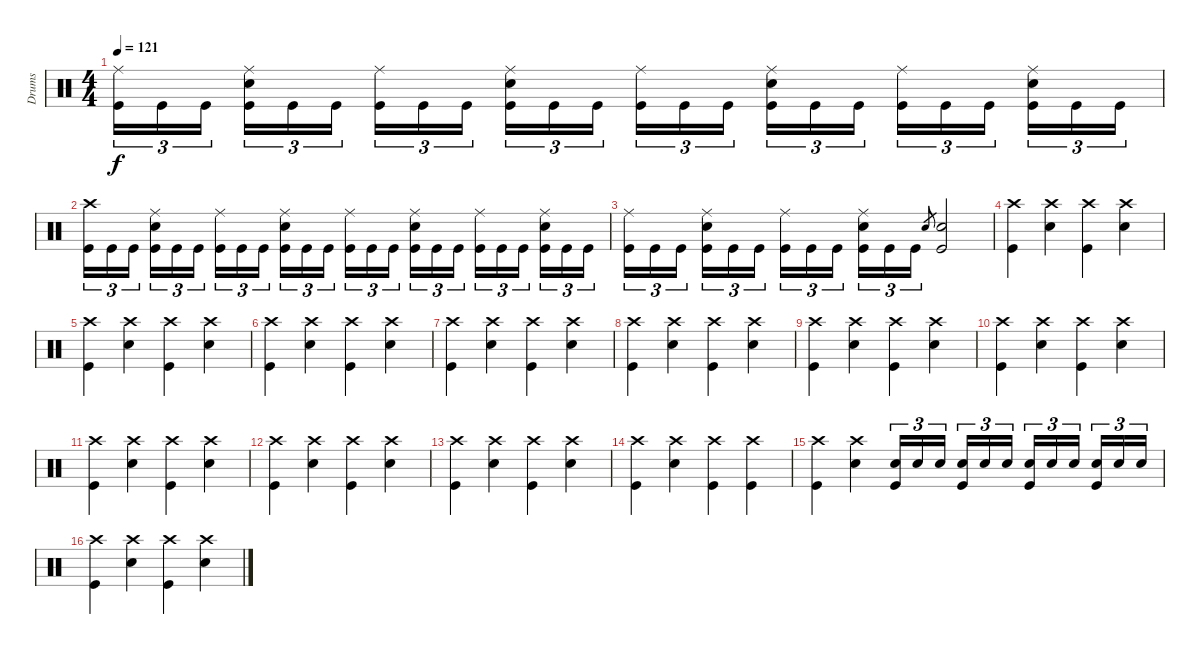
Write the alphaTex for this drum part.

\track ("Drums" "Drums") {instrument percussion}
\staff {score}
\articulation defaults
\ts (4 4)
\tempo 121
\clef neutral
\ks c
("Ride (middle)" "Kick (hit)").16{tu (3 2) dy f} "Kick (hit)".16{tu (3 2)} "Kick (hit)".16{tu (3 2)} ("Ride (middle)" "Electric Snare (hit)" "Kick (hit)").16{tu (3 2)} "Kick (hit)".16{tu (3 2)} "Kick (hit)".16{tu (3 2)} ("Ride (middle)" "Kick (hit)").16{tu (3 2)} "Kick (hit)".16{tu (3 2)} "Kick (hit)".16{tu (3 2)} ("Ride (middle)" "Electric Snare (hit)" "Kick (hit)").16{tu (3 2)} "Kick (hit)".16{tu (3 2)} "Kick (hit)".16{tu (3 2)} ("Ride (middle)" "Kick (hit)").16{tu (3 2)} "Kick (hit)".16{tu (3 2)} "Kick (hit)".16{tu (3 2)} ("Ride (middle)" "Electric Snare (hit)" "Kick (hit)").16{tu (3 2)} "Kick (hit)".16{tu (3 2)} "Kick (hit)".16{tu (3 2)} ("Ride (middle)" "Kick (hit)").16{tu (3 2)} "Kick (hit)".16{tu (3 2)} "Kick (hit)".16{tu (3 2)} ("Ride (middle)" "Electric Snare (hit)" "Kick (hit)").16{tu (3 2)} "Kick (hit)".16{tu (3 2)} "Kick (hit)".16{tu (3 2)} |
("Crash high (hit)" "Kick (hit)").16{tu (3 2)} "Kick (hit)".16{tu (3 2)} "Kick (hit)".16{tu (3 2)} ("Ride (middle)" "Electric Snare (hit)" "Kick (hit)").16{tu (3 2)} "Kick (hit)".16{tu (3 2)} "Kick (hit)".16{tu (3 2)} ("Ride (middle)" "Kick (hit)").16{tu (3 2)} "Kick (hit)".16{tu (3 2)} "Kick (hit)".16{tu (3 2)} ("Ride (middle)" "Electric Snare (hit)" "Kick (hit)").16{tu (3 2)} "Kick (hit)".16{tu (3 2)} "Kick (hit)".16{tu (3 2)} ("Ride (middle)" "Kick (hit)").16{tu (3 2)} "Kick (hit)".16{tu (3 2)} "Kick (hit)".16{tu (3 2)} ("Ride (middle)" "Electric Snare (hit)" "Kick (hit)").16{tu (3 2)} "Kick (hit)".16{tu (3 2)} "Kick (hit)".16{tu (3 2)} ("Ride (middle)" "Kick (hit)").16{tu (3 2)} "Kick (hit)".16{tu (3 2)} "Kick (hit)".16{tu (3 2)} ("Ride (middle)" "Electric Snare (hit)" "Kick (hit)").16{tu (3 2)} "Kick (hit)".16{tu (3 2)} "Kick (hit)".16{tu (3 2)} |
("Ride (middle)" "Kick (hit)").16{tu (3 2)} "Kick (hit)".16{tu (3 2)} "Kick (hit)".16{tu (3 2)} ("Ride (middle)" "Electric Snare (hit)" "Kick (hit)").16{tu (3 2)} "Kick (hit)".16{tu (3 2)} "Kick (hit)".16{tu (3 2)} ("Ride (middle)" "Kick (hit)").16{tu (3 2)} "Kick (hit)".16{tu (3 2)} "Kick (hit)".16{tu (3 2)} ("Ride (middle)" "Electric Snare (hit)" "Kick (hit)").16{tu (3 2)} "Kick (hit)".16{tu (3 2)} "Kick (hit)".16{tu (3 2)} "Electric Snare (hit)".8{gr} ("Electric Snare (hit)" "Kick (hit)").2 |
("Crash high (hit)" "Kick (hit)").4 ("Crash high (hit)" "Electric Snare (hit)").4 ("Crash high (hit)" "Kick (hit)").4 ("Crash high (hit)" "Electric Snare (hit)").4 |
("Crash high (hit)" "Kick (hit)").4 ("Crash high (hit)" "Electric Snare (hit)").4 ("Crash high (hit)" "Kick (hit)").4 ("Crash high (hit)" "Electric Snare (hit)").4 |
("Crash high (hit)" "Kick (hit)").4 ("Crash high (hit)" "Electric Snare (hit)").4 ("Crash high (hit)" "Kick (hit)").4 ("Crash high (hit)" "Electric Snare (hit)").4 |
("Crash high (hit)" "Kick (hit)").4 ("Crash high (hit)" "Electric Snare (hit)").4 ("Crash high (hit)" "Kick (hit)").4 ("Crash high (hit)" "Electric Snare (hit)").4 |
("Crash high (hit)" "Kick (hit)").4 ("Crash high (hit)" "Electric Snare (hit)").4 ("Crash high (hit)" "Kick (hit)").4 ("Crash high (hit)" "Electric Snare (hit)").4 |
("Crash high (hit)" "Kick (hit)").4 ("Crash high (hit)" "Electric Snare (hit)").4 ("Crash high (hit)" "Kick (hit)").4 ("Crash high (hit)" "Electric Snare (hit)").4 |
("Crash high (hit)" "Kick (hit)").4 ("Crash high (hit)" "Electric Snare (hit)").4 ("Crash high (hit)" "Kick (hit)").4 ("Crash high (hit)" "Electric Snare (hit)").4 |
("Crash high (hit)" "Kick (hit)").4 ("Crash high (hit)" "Electric Snare (hit)").4 ("Crash high (hit)" "Kick (hit)").4 ("Crash high (hit)" "Electric Snare (hit)").4 |
("Crash high (hit)" "Kick (hit)").4 ("Crash high (hit)" "Electric Snare (hit)").4 ("Crash high (hit)" "Kick (hit)").4 ("Crash high (hit)" "Electric Snare (hit)").4 |
("Crash high (hit)" "Kick (hit)").4 ("Crash high (hit)" "Electric Snare (hit)").4 ("Crash high (hit)" "Kick (hit)").4 ("Crash high (hit)" "Electric Snare (hit)").4 |
("Crash high (hit)" "Kick (hit)").4 ("Crash high (hit)" "Electric Snare (hit)").4 ("Crash high (hit)" "Kick (hit)").4 ("Crash high (hit)" "Kick (hit)").4 |
("Crash high (hit)" "Kick (hit)").4 ("Crash high (hit)" "Electric Snare (hit)").4 ("Electric Snare (hit)" "Kick (hit)").16{tu (3 2)} "Electric Snare (hit)".16{tu (3 2)} "Electric Snare (hit)".16{tu (3 2)} ("Electric Snare (hit)" "Kick (hit)").16{tu (3 2)} "Electric Snare (hit)".16{tu (3 2)} "Electric Snare (hit)".16{tu (3 2)} ("Electric Snare (hit)" "Kick (hit)").16{tu (3 2)} "Electric Snare (hit)".16{tu (3 2)} "Electric Snare (hit)".16{tu (3 2)} ("Electric Snare (hit)" "Kick (hit)").16{tu (3 2)} "Electric Snare (hit)".16{tu (3 2)} "Electric Snare (hit)".16{tu (3 2)} |
("Crash high (hit)" "Kick (hit)").4 ("Crash high (hit)" "Electric Snare (hit)").4 ("Crash high (hit)" "Kick (hit)").4 ("Crash high (hit)" "Electric Snare (hit)").4
